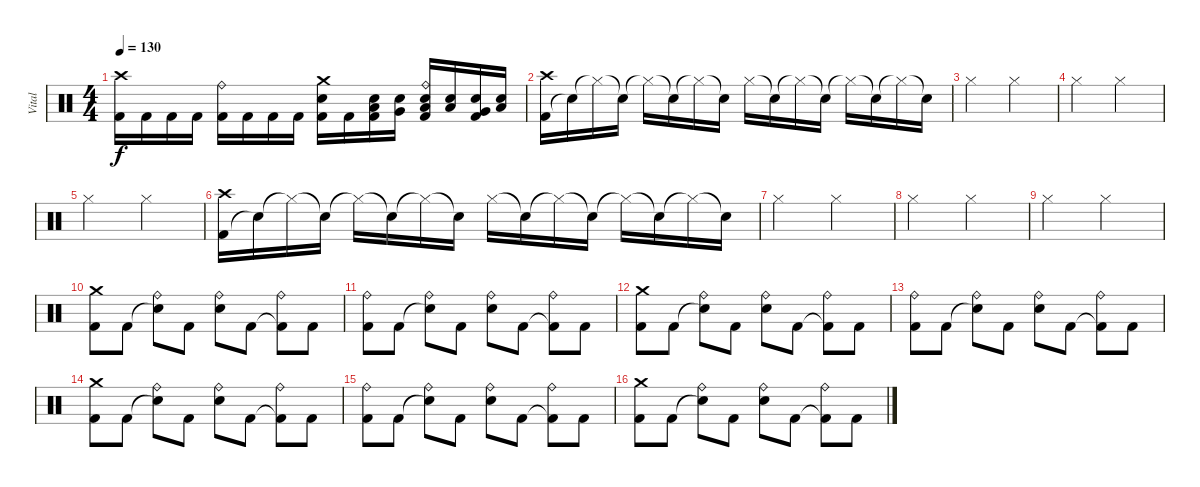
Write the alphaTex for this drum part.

\track ("Vital" "Vital") {instrument percussion}
\staff {score}
\articulation defaults
\ts (4 4)
\tempo 130
\clef neutral
\ks c
("Kick (hit) 2" "Crash high (hit)").16{dy f} "Kick (hit) 2".16 "Kick (hit) 2".16 "Kick (hit) 2".16 ("Kick (hit) 2" "Ride (bell)").16 "Kick (hit) 2".16 "Kick (hit) 2".16 "Kick (hit) 2".16 ("Kick (hit) 2" "Snare (hit) 2" "Crash medium (hit)").16 "Kick (hit) 2".16 ("Low Tom (hit)" "Kick (hit) 2" "Snare (hit) 2").16 ("Very Low Tom (hit)" "Snare (hit) 2").16 ("Low Tom (hit)" "Kick (hit) 2" "Snare (hit) 2" "Ride (bell)").16 ("Low Floor Tom (hit)" "Snare (hit) 2").16 ("Very Low Tom (hit)" "Kick (hit) 2" "Snare (hit) 2").16 ("Low Floor Tom (hit)" "Snare (hit) 2").16 |
("Kick (hit) 2" "Crash high (hit)").16 "Snare (hit)"{t}.16 "Hi-Hat (closed)"{t}.16 "Snare (hit)"{t}.16 "Hi-Hat (closed)"{t}.16 "Snare (hit)"{t}.16 "Hi-Hat (closed)"{t}.16 "Snare (hit)"{t}.16 "Hi-Hat (closed)".16 "Snare (hit)"{t}.16 "Hi-Hat (closed)"{t}.16 "Snare (hit)"{t}.16 "Hi-Hat (closed)"{t}.16 "Snare (hit)"{t}.16 "Hi-Hat (closed)"{t}.16 "Snare (hit)"{t}.16 |
"Hi-Hat (closed)".2 "Hi-Hat (closed)".2 |
"Hi-Hat (closed)".2 "Hi-Hat (closed)".2 |
"Hi-Hat (closed)".2 "Hi-Hat (closed)".2 |
("Kick (hit) 2" "Crash high (hit)").16 "Snare (hit)"{t}.16 "Hi-Hat (closed)"{t}.16 "Snare (hit)"{t}.16 "Hi-Hat (closed)"{t}.16 "Snare (hit)"{t}.16 "Hi-Hat (closed)"{t}.16 "Snare (hit)"{t}.16 "Hi-Hat (closed)".16 "Snare (hit)"{t}.16 "Hi-Hat (closed)"{t}.16 "Snare (hit)"{t}.16 "Hi-Hat (closed)"{t}.16 "Snare (hit)"{t}.16 "Hi-Hat (closed)"{t}.16 "Snare (hit)"{t}.16 |
"Hi-Hat (closed)".2 "Hi-Hat (closed)".2 |
"Hi-Hat (closed)".2 "Hi-Hat (closed)".2 |
"Hi-Hat (closed)".2 "Hi-Hat (closed)".2 |
("Kick (hit) 2" "Crash medium (hit)").8 "Kick (hit) 2".8 ("Snare (hit)"{t} "Ride (bell)").8 "Kick (hit) 2".8 ("Snare (hit) 2" "Ride (bell)").8 "Kick (hit) 2".8 ("Kick (hit) 2"{t} "Ride (bell)").8 "Kick (hit) 2".8 |
("Kick (hit) 2" "Ride (bell)").8 "Kick (hit) 2".8 ("Snare (hit)"{t} "Ride (bell)").8 "Kick (hit) 2".8 ("Snare (hit) 2" "Ride (bell)").8 "Kick (hit) 2".8 ("Kick (hit) 2"{t} "Ride (bell)").8 "Kick (hit) 2".8 |
("Kick (hit) 2" "Crash medium (hit)").8 "Kick (hit) 2".8 ("Snare (hit)"{t} "Ride (bell)").8 "Kick (hit) 2".8 ("Snare (hit) 2" "Ride (bell)").8 "Kick (hit) 2".8 ("Kick (hit) 2"{t} "Ride (bell)").8 "Kick (hit) 2".8 |
("Kick (hit) 2" "Ride (bell)").8 "Kick (hit) 2".8 ("Snare (hit)"{t} "Ride (bell)").8 "Kick (hit) 2".8 ("Snare (hit) 2" "Ride (bell)").8 "Kick (hit) 2".8 ("Kick (hit) 2"{t} "Ride (bell)").8 "Kick (hit) 2".8 |
("Kick (hit) 2" "Crash medium (hit)").8 "Kick (hit) 2".8 ("Snare (hit)"{t} "Ride (bell)").8 "Kick (hit) 2".8 ("Snare (hit) 2" "Ride (bell)").8 "Kick (hit) 2".8 ("Kick (hit) 2"{t} "Ride (bell)").8 "Kick (hit) 2".8 |
("Kick (hit) 2" "Ride (bell)").8 "Kick (hit) 2".8 ("Snare (hit)"{t} "Ride (bell)").8 "Kick (hit) 2".8 ("Snare (hit) 2" "Ride (bell)").8 "Kick (hit) 2".8 ("Kick (hit) 2"{t} "Ride (bell)").8 "Kick (hit) 2".8 |
("Kick (hit) 2" "Crash medium (hit)").8 "Kick (hit) 2".8 ("Snare (hit)"{t} "Ride (bell)").8 "Kick (hit) 2".8 ("Snare (hit) 2" "Ride (bell)").8 "Kick (hit) 2".8 ("Kick (hit) 2"{t} "Ride (bell)").8 "Kick (hit) 2".8
